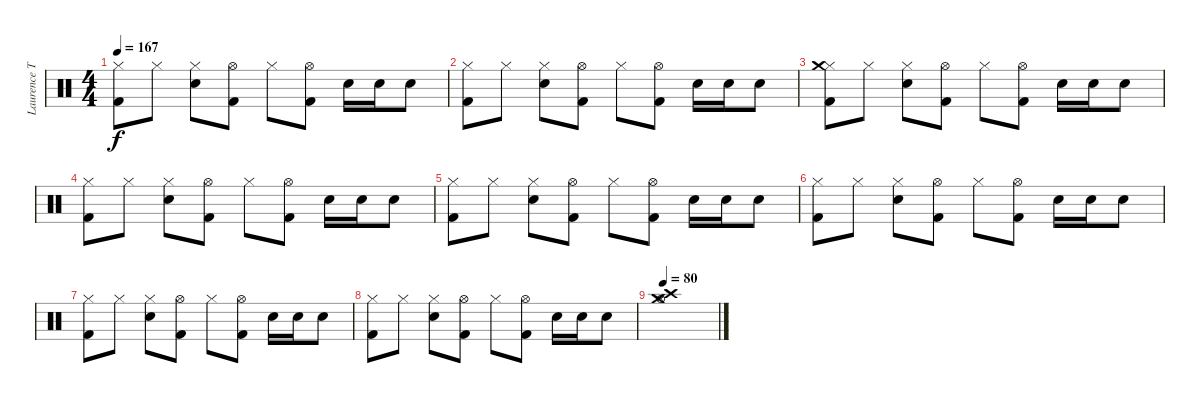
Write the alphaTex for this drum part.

\track ("Laurence Tolhurst" "Laurence T") {instrument percussion}
\staff {score}
\articulation defaults
\ts (4 4)
\tempo 167
\clef neutral
\ks c
("Kick (hit) 2" "Hi-Hat (closed)").8{dy f} "Hi-Hat (closed)".8 ("Hi-Hat (closed)" "Snare (hit) 2").8 ("Kick (hit) 2" "Hi-Hat (open)").8 "Hi-Hat (closed)".8 ("Hi-Hat (open)" "Kick (hit) 2").8 "Snare (hit) 2".16 "Snare (hit) 2".16 "Snare (hit) 2".8 |
("Kick (hit) 2" "Hi-Hat (closed)").8 "Hi-Hat (closed)".8 ("Hi-Hat (closed)" "Snare (hit) 2").8 ("Kick (hit) 2" "Hi-Hat (open)").8 "Hi-Hat (closed)".8 ("Hi-Hat (open)" "Kick (hit) 2").8 "Snare (hit) 2".16 "Snare (hit) 2".16 "Snare (hit) 2".8 |
("Kick (hit) 2" "Hi-Hat (closed)" "Crash medium (hit)").8 "Hi-Hat (closed)".8 ("Hi-Hat (closed)" "Snare (hit) 2").8 ("Kick (hit) 2" "Hi-Hat (open)").8 "Hi-Hat (closed)".8 ("Hi-Hat (open)" "Kick (hit) 2").8 "Snare (hit) 2".16 "Snare (hit) 2".16 "Snare (hit) 2".8 |
("Kick (hit) 2" "Hi-Hat (closed)").8 "Hi-Hat (closed)".8 ("Hi-Hat (closed)" "Snare (hit) 2").8 ("Kick (hit) 2" "Hi-Hat (open)").8 "Hi-Hat (closed)".8 ("Hi-Hat (open)" "Kick (hit) 2").8 "Snare (hit) 2".16 "Snare (hit) 2".16 "Snare (hit) 2".8 |
("Kick (hit) 2" "Hi-Hat (closed)").8 "Hi-Hat (closed)".8 ("Hi-Hat (closed)" "Snare (hit) 2").8 ("Kick (hit) 2" "Hi-Hat (open)").8 "Hi-Hat (closed)".8 ("Hi-Hat (open)" "Kick (hit) 2").8 "Snare (hit) 2".16 "Snare (hit) 2".16 "Snare (hit) 2".8 |
("Kick (hit) 2" "Hi-Hat (closed)").8 "Hi-Hat (closed)".8 ("Hi-Hat (closed)" "Snare (hit) 2").8 ("Kick (hit) 2" "Hi-Hat (open)").8 "Hi-Hat (closed)".8 ("Hi-Hat (open)" "Kick (hit) 2").8 "Snare (hit) 2".16 "Snare (hit) 2".16 "Snare (hit) 2".8 |
("Kick (hit) 2" "Hi-Hat (closed)").8 "Hi-Hat (closed)".8 ("Hi-Hat (closed)" "Snare (hit) 2").8 ("Kick (hit) 2" "Hi-Hat (open)").8 "Hi-Hat (closed)".8 ("Hi-Hat (open)" "Kick (hit) 2").8 "Snare (hit) 2".16 "Snare (hit) 2".16 "Snare (hit) 2".8 |
("Kick (hit) 2" "Hi-Hat (closed)").8 "Hi-Hat (closed)".8 ("Hi-Hat (closed)" "Snare (hit) 2").8 ("Kick (hit) 2" "Hi-Hat (open)").8 "Hi-Hat (closed)".8 ("Hi-Hat (open)" "Kick (hit) 2").8 "Snare (hit) 2".16 "Snare (hit) 2".16 "Snare (hit) 2".8 |
\tempo 80
("Hi-Hat (open)" "Crash high (hit)" "Crash medium (hit)").1
